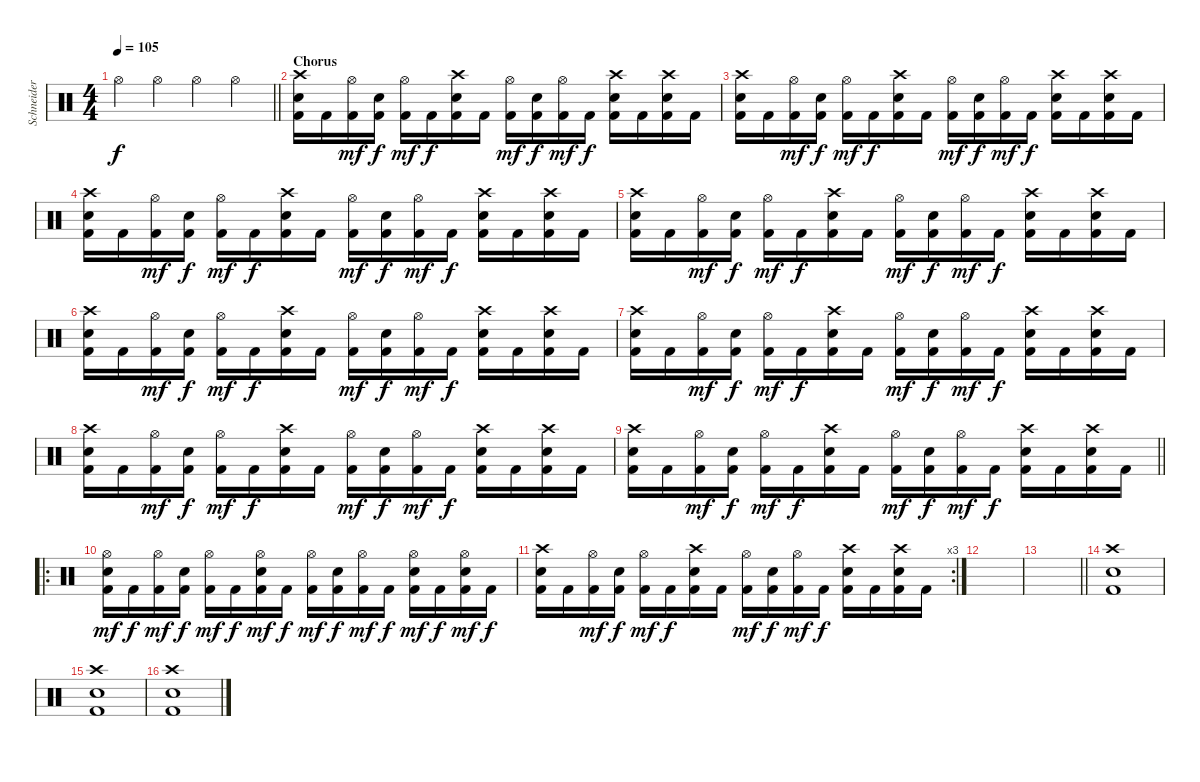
\track ("Schneider" "Schneider") {instrument percussion}
\staff {score}
\articulation defaults
\ts (4 4)
\tempo 105
\clef neutral
\barLineRight lightlight
\ks c "Hi-Hat (open)".4{dy f} "Hi-Hat (open)".4 "Hi-Hat (open)".4 "Hi-Hat (open)".4
|
\section ("" "Chorus")
("Crash high (hit)" "Kick (hit) 2" "Electric Snare (hit)").16 "Kick (hit) 2".16 ("Hi-Hat (open)" "Kick (hit) 2").16{dy mf} ("Kick (hit) 2" "Electric Snare (hit)").16{dy f} ("Hi-Hat (open)" "Kick (hit) 2").16{dy mf} "Kick (hit) 2".16{dy f} ("Crash high (hit)" "Kick (hit) 2" "Electric Snare (hit)").16 "Kick (hit) 2".16 ("Hi-Hat (open)" "Kick (hit) 2").16{dy mf} ("Kick (hit) 2" "Electric Snare (hit)").16{dy f} ("Hi-Hat (open)" "Kick (hit) 2").16{dy mf} "Kick (hit) 2".16{dy f} ("Crash high (hit)" "Kick (hit) 2" "Electric Snare (hit)").16 "Kick (hit) 2".16 ("Crash high (hit)" "Kick (hit) 2" "Electric Snare (hit)").16 "Kick (hit) 2".16 |
("Crash high (hit)" "Kick (hit) 2" "Electric Snare (hit)").16 "Kick (hit) 2".16 ("Hi-Hat (open)" "Kick (hit) 2").16{dy mf} ("Kick (hit) 2" "Electric Snare (hit)").16{dy f} ("Hi-Hat (open)" "Kick (hit) 2").16{dy mf} "Kick (hit) 2".16{dy f} ("Crash high (hit)" "Kick (hit) 2" "Electric Snare (hit)").16 "Kick (hit) 2".16 ("Hi-Hat (open)" "Kick (hit) 2").16{dy mf} ("Kick (hit) 2" "Electric Snare (hit)").16{dy f} ("Hi-Hat (open)" "Kick (hit) 2").16{dy mf} "Kick (hit) 2".16{dy f} ("Crash high (hit)" "Kick (hit) 2" "Electric Snare (hit)").16 "Kick (hit) 2".16 ("Crash high (hit)" "Kick (hit) 2" "Electric Snare (hit)").16 "Kick (hit) 2".16 |
("Crash high (hit)" "Kick (hit) 2" "Electric Snare (hit)").16 "Kick (hit) 2".16 ("Hi-Hat (open)" "Kick (hit) 2").16{dy mf} ("Kick (hit) 2" "Electric Snare (hit)").16{dy f} ("Hi-Hat (open)" "Kick (hit) 2").16{dy mf} "Kick (hit) 2".16{dy f} ("Crash high (hit)" "Kick (hit) 2" "Electric Snare (hit)").16 "Kick (hit) 2".16 ("Hi-Hat (open)" "Kick (hit) 2").16{dy mf} ("Kick (hit) 2" "Electric Snare (hit)").16{dy f} ("Hi-Hat (open)" "Kick (hit) 2").16{dy mf} "Kick (hit) 2".16{dy f} ("Crash high (hit)" "Kick (hit) 2" "Electric Snare (hit)").16 "Kick (hit) 2".16 ("Crash high (hit)" "Kick (hit) 2" "Electric Snare (hit)").16 "Kick (hit) 2".16 |
("Crash high (hit)" "Kick (hit) 2" "Electric Snare (hit)").16 "Kick (hit) 2".16 ("Hi-Hat (open)" "Kick (hit) 2").16{dy mf} ("Kick (hit) 2" "Electric Snare (hit)").16{dy f} ("Hi-Hat (open)" "Kick (hit) 2").16{dy mf} "Kick (hit) 2".16{dy f} ("Crash high (hit)" "Kick (hit) 2" "Electric Snare (hit)").16 "Kick (hit) 2".16 ("Hi-Hat (open)" "Kick (hit) 2").16{dy mf} ("Kick (hit) 2" "Electric Snare (hit)").16{dy f} ("Hi-Hat (open)" "Kick (hit) 2").16{dy mf} "Kick (hit) 2".16{dy f} ("Crash high (hit)" "Kick (hit) 2" "Electric Snare (hit)").16 "Kick (hit) 2".16 ("Crash high (hit)" "Kick (hit) 2" "Electric Snare (hit)").16 "Kick (hit) 2".16 |
("Crash high (hit)" "Kick (hit) 2" "Electric Snare (hit)").16 "Kick (hit) 2".16 ("Hi-Hat (open)" "Kick (hit) 2").16{dy mf} ("Kick (hit) 2" "Electric Snare (hit)").16{dy f} ("Hi-Hat (open)" "Kick (hit) 2").16{dy mf} "Kick (hit) 2".16{dy f} ("Crash high (hit)" "Kick (hit) 2" "Electric Snare (hit)").16 "Kick (hit) 2".16 ("Hi-Hat (open)" "Kick (hit) 2").16{dy mf} ("Kick (hit) 2" "Electric Snare (hit)").16{dy f} ("Hi-Hat (open)" "Kick (hit) 2").16{dy mf} "Kick (hit) 2".16{dy f} ("Crash high (hit)" "Kick (hit) 2" "Electric Snare (hit)").16 "Kick (hit) 2".16 ("Crash high (hit)" "Kick (hit) 2" "Electric Snare (hit)").16 "Kick (hit) 2".16 |
("Crash high (hit)" "Kick (hit) 2" "Electric Snare (hit)").16 "Kick (hit) 2".16 ("Hi-Hat (open)" "Kick (hit) 2").16{dy mf} ("Kick (hit) 2" "Electric Snare (hit)").16{dy f} ("Hi-Hat (open)" "Kick (hit) 2").16{dy mf} "Kick (hit) 2".16{dy f} ("Crash high (hit)" "Kick (hit) 2" "Electric Snare (hit)").16 "Kick (hit) 2".16 ("Hi-Hat (open)" "Kick (hit) 2").16{dy mf} ("Kick (hit) 2" "Electric Snare (hit)").16{dy f} ("Hi-Hat (open)" "Kick (hit) 2").16{dy mf} "Kick (hit) 2".16{dy f} ("Crash high (hit)" "Kick (hit) 2" "Electric Snare (hit)").16 "Kick (hit) 2".16 ("Crash high (hit)" "Kick (hit) 2" "Electric Snare (hit)").16 "Kick (hit) 2".16 |
("Crash high (hit)" "Kick (hit) 2" "Electric Snare (hit)").16 "Kick (hit) 2".16 ("Hi-Hat (open)" "Kick (hit) 2").16{dy mf} ("Kick (hit) 2" "Electric Snare (hit)").16{dy f} ("Hi-Hat (open)" "Kick (hit) 2").16{dy mf} "Kick (hit) 2".16{dy f} ("Crash high (hit)" "Kick (hit) 2" "Electric Snare (hit)").16 "Kick (hit) 2".16 ("Hi-Hat (open)" "Kick (hit) 2").16{dy mf} ("Kick (hit) 2" "Electric Snare (hit)").16{dy f} ("Hi-Hat (open)" "Kick (hit) 2").16{dy mf} "Kick (hit) 2".16{dy f} ("Crash high (hit)" "Kick (hit) 2" "Electric Snare (hit)").16 "Kick (hit) 2".16 ("Crash high (hit)" "Kick (hit) 2" "Electric Snare (hit)").16 "Kick (hit) 2".16 |
\barLineRight lightlight
("Crash high (hit)" "Kick (hit) 2" "Electric Snare (hit)").16 "Kick (hit) 2".16 ("Hi-Hat (open)" "Kick (hit) 2").16{dy mf} ("Kick (hit) 2" "Electric Snare (hit)").16{dy f} ("Hi-Hat (open)" "Kick (hit) 2").16{dy mf} "Kick (hit) 2".16{dy f} ("Crash high (hit)" "Kick (hit) 2" "Electric Snare (hit)").16 "Kick (hit) 2".16 ("Hi-Hat (open)" "Kick (hit) 2").16{dy mf} ("Kick (hit) 2" "Electric Snare (hit)").16{dy f} ("Hi-Hat (open)" "Kick (hit) 2").16{dy mf} "Kick (hit) 2".16{dy f} ("Crash high (hit)" "Kick (hit) 2" "Electric Snare (hit)").16 "Kick (hit) 2".16 ("Crash high (hit)" "Kick (hit) 2" "Electric Snare (hit)").16 "Kick (hit) 2".16 |
\ro
\section ("" " ")
("Hi-Hat (open)" "Kick (hit) 2" "Electric Snare (hit)").16{dy mf} "Kick (hit) 2".16{dy f} ("Hi-Hat (open)" "Kick (hit) 2").16{dy mf} ("Kick (hit) 2" "Electric Snare (hit)").16{dy f} ("Hi-Hat (open)" "Kick (hit) 2").16{dy mf} "Kick (hit) 2".16{dy f} ("Hi-Hat (open)" "Kick (hit) 2" "Electric Snare (hit)").16{dy mf} "Kick (hit) 2".16{dy f} ("Hi-Hat (open)" "Kick (hit) 2").16{dy mf} ("Kick (hit) 2" "Electric Snare (hit)").16{dy f} ("Hi-Hat (open)" "Kick (hit) 2").16{dy mf} "Kick (hit) 2".16{dy f} ("Hi-Hat (open)" "Kick (hit) 2" "Electric Snare (hit)").16{dy mf} "Kick (hit) 2".16{dy f} ("Hi-Hat (open)" "Kick (hit) 2" "Electric Snare (hit)").16{dy mf} "Kick (hit) 2".16{dy f} |
\rc 3
("Crash high (hit)" "Kick (hit) 2" "Electric Snare (hit)").16 "Kick (hit) 2".16 ("Hi-Hat (open)" "Kick (hit) 2").16{dy mf} ("Kick (hit) 2" "Electric Snare (hit)").16{dy f} ("Hi-Hat (open)" "Kick (hit) 2").16{dy mf} "Kick (hit) 2".16{dy f} ("Crash high (hit)" "Kick (hit) 2" "Electric Snare (hit)").16 "Kick (hit) 2".16 ("Hi-Hat (open)" "Kick (hit) 2").16{dy mf} ("Kick (hit) 2" "Electric Snare (hit)").16{dy f} ("Hi-Hat (open)" "Kick (hit) 2").16{dy mf} "Kick (hit) 2".16{dy f} ("Crash high (hit)" "Kick (hit) 2" "Electric Snare (hit)").16 "Kick (hit) 2".16 ("Crash high (hit)" "Kick (hit) 2" "Electric Snare (hit)").16 "Kick (hit) 2".16 |
|
\barLineRight lightlight
|
\section ("" " ")
("Crash high (hit)" "Kick (hit) 2" "Electric Snare (hit)").1 |
("Crash high (hit)" "Kick (hit) 2" "Electric Snare (hit)").1 |
("Crash high (hit)" "Kick (hit) 2" "Electric Snare (hit)").1
